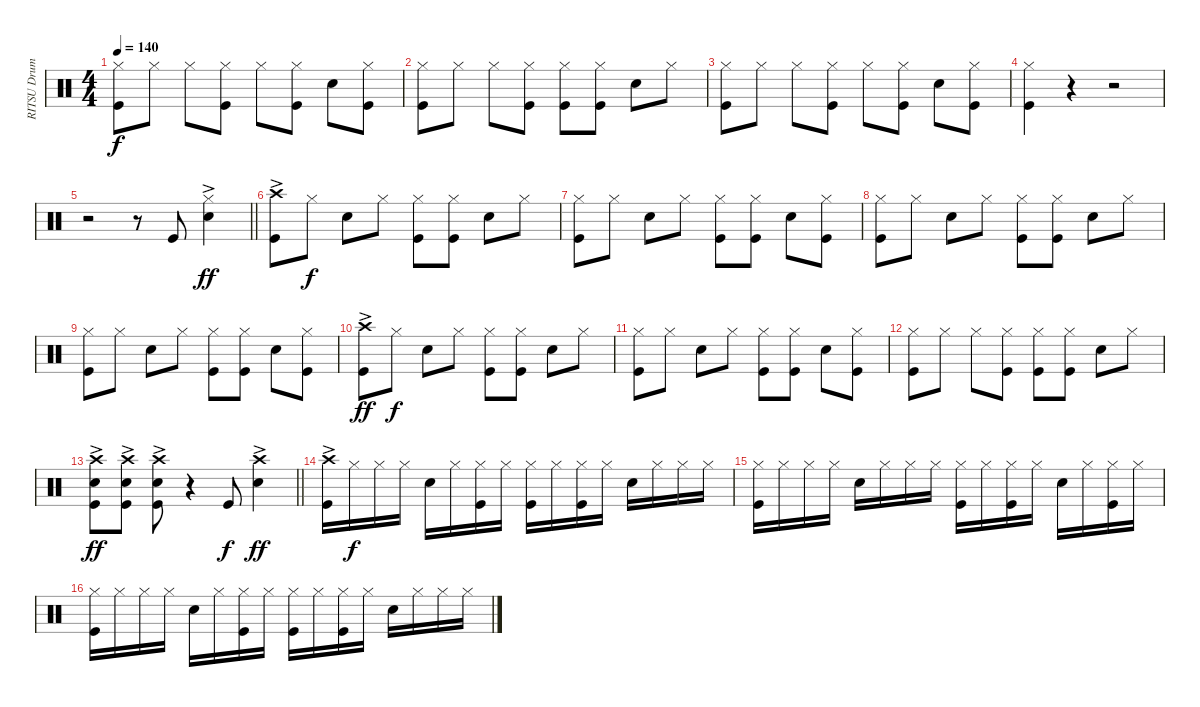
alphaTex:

\track ("RITSU Drums" "RITSU Drum") {instrument percussion}
\staff {score}
\articulation defaults
\ts (4 4)
\tempo 140
\clef neutral
\ks c
("Hi-Hat (closed)" "Kick (hit)").8{dy f} "Hi-Hat (closed)".8 "Hi-Hat (closed)".8 ("Hi-Hat (closed)" "Kick (hit)").8 "Hi-Hat (closed)".8 ("Hi-Hat (closed)" "Kick (hit)").8 "Snare (hit) 2".8 ("Hi-Hat (closed)" "Kick (hit)").8 |
("Hi-Hat (closed)" "Kick (hit)").8 "Hi-Hat (closed)".8 "Hi-Hat (closed)".8 ("Hi-Hat (closed)" "Kick (hit)").8 ("Hi-Hat (closed)" "Kick (hit)").8 ("Hi-Hat (closed)" "Kick (hit)").8 "Snare (hit) 2".8 "Hi-Hat (closed)".8 |
("Hi-Hat (closed)" "Kick (hit)").8 "Hi-Hat (closed)".8 "Hi-Hat (closed)".8 ("Hi-Hat (closed)" "Kick (hit)").8 "Hi-Hat (closed)".8 ("Hi-Hat (closed)" "Kick (hit)").8 "Snare (hit) 2".8 ("Hi-Hat (closed)" "Kick (hit)").8 |
("Hi-Hat (closed)" "Kick (hit)").4 r.4 r.2 |
\barLineRight lightlight
r.2 r.8 "Kick (hit)".8 ("Hi-Hat (closed)"{ac} "Snare (hit) 2"{ac}).4{dy ff} |
("Crash high (hit)"{ac} "Kick (hit)").8 "Hi-Hat (closed)".8{dy f} "Snare (hit) 2".8 "Hi-Hat (closed)".8 ("Hi-Hat (closed)" "Kick (hit)").8 ("Kick (hit)" "Hi-Hat (closed)").8 "Snare (hit) 2".8 "Hi-Hat (closed)".8 |
("Hi-Hat (closed)" "Kick (hit)").8 "Hi-Hat (closed)".8 "Snare (hit) 2".8 "Hi-Hat (closed)".8 ("Hi-Hat (closed)" "Kick (hit)").8 ("Hi-Hat (closed)" "Kick (hit)").8 "Snare (hit) 2".8 ("Kick (hit)" "Hi-Hat (closed)").8 |
("Kick (hit)" "Hi-Hat (closed)").8 "Hi-Hat (closed)".8 "Snare (hit) 2".8 "Hi-Hat (closed)".8 ("Hi-Hat (closed)" "Kick (hit)").8 ("Hi-Hat (closed)" "Kick (hit)").8 "Snare (hit) 2".8 "Hi-Hat (closed)".8 |
("Hi-Hat (closed)" "Kick (hit)").8 "Hi-Hat (closed)".8 "Snare (hit) 2".8 "Hi-Hat (closed)".8 ("Hi-Hat (closed)" "Kick (hit)").8 ("Kick (hit)" "Hi-Hat (closed)").8 "Snare (hit) 2".8 ("Hi-Hat (closed)" "Kick (hit)").8 |
("Crash high (hit)"{ac} "Kick (hit)").8{dy ff} "Hi-Hat (closed)".8{dy f} "Snare (hit) 2".8 "Hi-Hat (closed)".8 ("Hi-Hat (closed)" "Kick (hit)").8 ("Hi-Hat (closed)" "Kick (hit)").8 "Snare (hit) 2".8 "Hi-Hat (closed)".8 |
("Hi-Hat (closed)" "Kick (hit)").8 "Hi-Hat (closed)".8 "Snare (hit) 2".8 "Hi-Hat (closed)".8 ("Hi-Hat (closed)" "Kick (hit)").8 ("Hi-Hat (closed)" "Kick (hit)").8 "Snare (hit) 2".8 ("Hi-Hat (closed)" "Kick (hit)").8 |
("Hi-Hat (closed)" "Kick (hit)").8 "Hi-Hat (closed)".8 "Hi-Hat (closed)".8 ("Hi-Hat (closed)" "Kick (hit)").8 ("Kick (hit)" "Hi-Hat (closed)").8 ("Hi-Hat (closed)" "Kick (hit)").8 "Snare (hit) 2".8 "Hi-Hat (closed)".8 |
\barLineRight lightlight
("Crash high (hit)"{ac} "Snare (hit) 2"{ac} "Kick (hit)"{ac}).8{dy ff} ("Crash high (hit)"{ac} "Snare (hit) 2"{ac} "Kick (hit)"{ac}).8 ("Crash high (hit)"{ac} "Snare (hit) 2"{ac} "Kick (hit)"{ac}).8 r.4 "Kick (hit)".8{dy f} ("Crash high (hit)"{ac} "Snare (hit) 2"{ac}).4{dy ff} |
("Crash high (hit)"{ac} "Kick (hit)").16 "Hi-Hat (closed)".16{dy f} "Hi-Hat (closed)".16 "Hi-Hat (closed)".16 "Snare (hit) 2".16 "Hi-Hat (closed)".16 ("Hi-Hat (closed)" "Kick (hit)").16 "Hi-Hat (closed)".16 ("Hi-Hat (closed)" "Kick (hit)").16 "Hi-Hat (closed)".16 ("Hi-Hat (closed)" "Kick (hit)").16 "Hi-Hat (closed)".16 "Snare (hit) 2".16 "Hi-Hat (closed)".16 "Hi-Hat (closed)".16 "Hi-Hat (closed)".16 |
("Hi-Hat (closed)" "Kick (hit)").16 "Hi-Hat (closed)".16 "Hi-Hat (closed)".16 "Hi-Hat (closed)".16 "Snare (hit) 2".16 "Hi-Hat (closed)".16 "Hi-Hat (closed)".16 "Hi-Hat (closed)".16 ("Hi-Hat (closed)" "Kick (hit)").16 "Hi-Hat (closed)".16 ("Hi-Hat (closed)" "Kick (hit)").16 "Hi-Hat (closed)".16 "Snare (hit) 2".16 "Hi-Hat (closed)".16 ("Hi-Hat (closed)" "Kick (hit)").16 "Hi-Hat (closed)".16 |
("Hi-Hat (closed)" "Kick (hit)").16 "Hi-Hat (closed)".16 "Hi-Hat (closed)".16 "Hi-Hat (closed)".16 "Snare (hit) 2".16 "Hi-Hat (closed)".16 ("Hi-Hat (closed)" "Kick (hit)").16 "Hi-Hat (closed)".16 ("Kick (hit)" "Hi-Hat (closed)").16 "Hi-Hat (closed)".16 ("Hi-Hat (closed)" "Kick (hit)").16 "Hi-Hat (closed)".16 "Snare (hit) 2".16 "Hi-Hat (closed)".16 "Hi-Hat (closed)".16 "Hi-Hat (closed)".16
